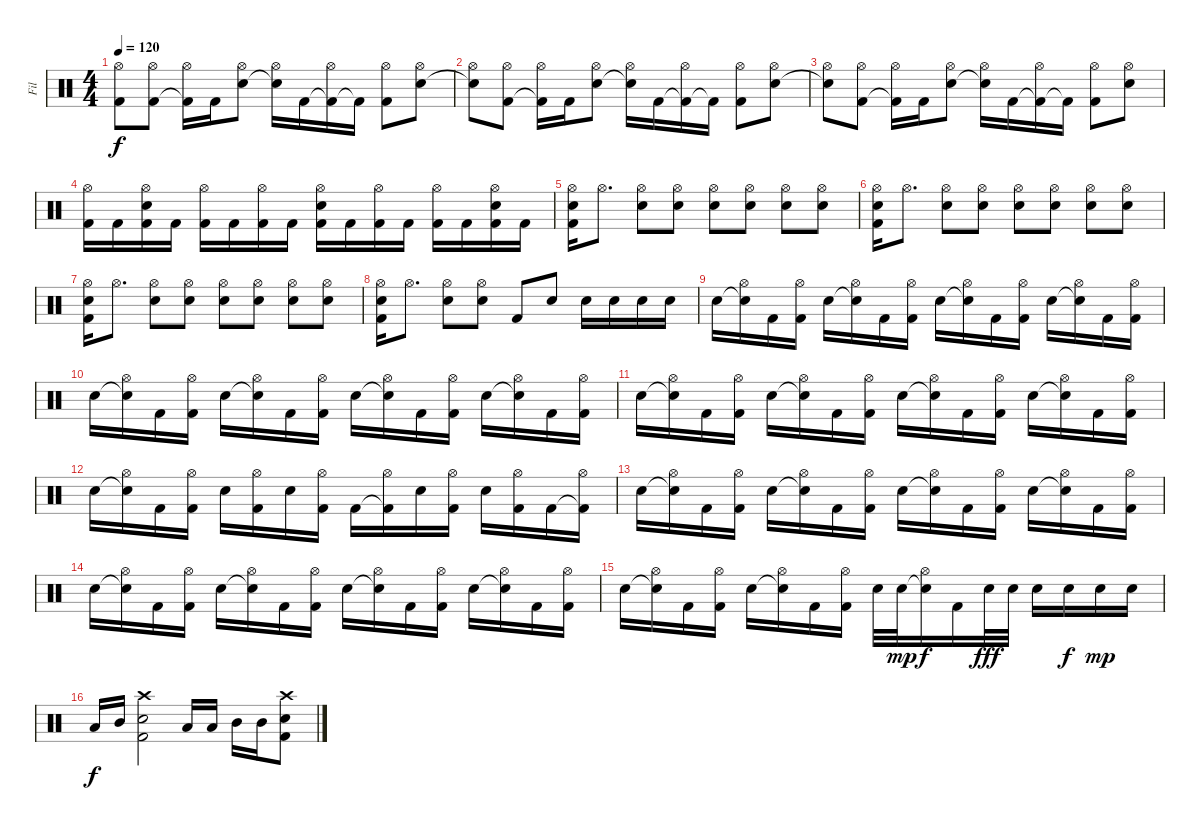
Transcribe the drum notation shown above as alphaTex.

\track ("Fil" "Fil") {instrument percussion}
\staff {score}
\articulation defaults
\ts (4 4)
\tempo 120
\clef neutral
\ks c
("Kick (hit) 2"{t} "Hi-Hat (open)").8{dy f} ("Kick (hit) 2" "Hi-Hat (open)").8 ("Kick (hit) 2"{t} "Hi-Hat (open)").16 "Kick (hit) 2".16 ("Snare (hit) 2" "Hi-Hat (open)").8 ("Snare (hit) 2"{t} "Hi-Hat (open)").16 "Kick (hit) 2".16 ("Kick (hit) 2"{t} "Hi-Hat (open)").16 "Kick (hit) 2"{t}.16 ("Kick (hit) 2" "Hi-Hat (open)").8 ("Snare (hit) 2" "Hi-Hat (open)").8 |
("Snare (hit) 2"{t} "Hi-Hat (open)").8 ("Kick (hit) 2" "Hi-Hat (open)").8 ("Kick (hit) 2"{t} "Hi-Hat (open)").16 "Kick (hit) 2".16 ("Snare (hit) 2" "Hi-Hat (open)").8 ("Snare (hit) 2"{t} "Hi-Hat (open)").16 "Kick (hit) 2".16 ("Kick (hit) 2"{t} "Hi-Hat (open)").16 "Kick (hit) 2"{t}.16 ("Kick (hit) 2" "Hi-Hat (open)").8 ("Snare (hit) 2" "Hi-Hat (open)").8 |
("Snare (hit) 2"{t} "Hi-Hat (open)").8 ("Kick (hit) 2" "Hi-Hat (open)").8 ("Kick (hit) 2"{t} "Hi-Hat (open)").16 "Kick (hit) 2".16 ("Snare (hit) 2" "Hi-Hat (open)").8 ("Snare (hit) 2"{t} "Hi-Hat (open)").16 "Kick (hit) 2".16 ("Kick (hit) 2"{t} "Hi-Hat (open)").16 "Kick (hit) 2"{t}.16 ("Kick (hit) 2" "Hi-Hat (open)").8 ("Snare (hit) 2" "Hi-Hat (open)").8 |
("Kick (hit) 2" "Hi-Hat (open)").16 "Kick (hit) 2".16 ("Kick (hit) 2" "Snare (hit) 2" "Hi-Hat (open)").16 "Kick (hit) 2".16 ("Kick (hit) 2" "Hi-Hat (open)").16 "Kick (hit) 2".16 ("Kick (hit) 2" "Hi-Hat (open)").16 "Kick (hit) 2".16 ("Kick (hit) 2" "Snare (hit) 2" "Hi-Hat (open)").16 "Kick (hit) 2".16 ("Kick (hit) 2" "Hi-Hat (open)").16 "Kick (hit) 2".16 ("Kick (hit) 2" "Hi-Hat (open)").16 "Kick (hit) 2".16 ("Kick (hit) 2" "Snare (hit) 2" "Hi-Hat (open)").16 "Kick (hit) 2".16 |
("Kick (hit) 2" "Snare (hit) 2" "Hi-Hat (open)").16 "Hi-Hat (open)".8{d} ("Snare (hit) 2" "Hi-Hat (open)").8 ("Snare (hit) 2" "Hi-Hat (open)").8 ("Snare (hit) 2" "Hi-Hat (open)").8 ("Snare (hit) 2" "Hi-Hat (open)").8 ("Snare (hit) 2" "Hi-Hat (open)").8 ("Snare (hit) 2" "Hi-Hat (open)").8 |
("Kick (hit) 2" "Snare (hit) 2" "Hi-Hat (open)").16 "Hi-Hat (open)".8{d} ("Snare (hit) 2" "Hi-Hat (open)").8 ("Snare (hit) 2" "Hi-Hat (open)").8 ("Snare (hit) 2" "Hi-Hat (open)").8 ("Snare (hit) 2" "Hi-Hat (open)").8 ("Snare (hit) 2" "Hi-Hat (open)").8 ("Snare (hit) 2" "Hi-Hat (open)").8 |
("Kick (hit) 2" "Snare (hit) 2" "Hi-Hat (open)").16 "Hi-Hat (open)".8{d} ("Snare (hit) 2" "Hi-Hat (open)").8 ("Snare (hit) 2" "Hi-Hat (open)").8 ("Snare (hit) 2" "Hi-Hat (open)").8 ("Snare (hit) 2" "Hi-Hat (open)").8 ("Snare (hit) 2" "Hi-Hat (open)").8 ("Snare (hit) 2" "Hi-Hat (open)").8 |
("Kick (hit) 2" "Snare (hit) 2" "Hi-Hat (open)").16 "Hi-Hat (open)".8{d} ("Snare (hit) 2" "Hi-Hat (open)").8 ("Snare (hit) 2" "Hi-Hat (open)").8 "Kick (hit) 2".8 "Snare (hit) 2".8 "Snare (hit) 2".16 "Snare (hit) 2".16 "Snare (hit) 2".16 "Snare (hit) 2".16 |
"Snare (hit) 2".16 ("Snare (hit) 2"{t} "Hi-Hat (open)").16 "Kick (hit) 2".16 ("Kick (hit) 2" "Hi-Hat (open)").16 "Snare (hit) 2".16 ("Snare (hit) 2"{t} "Hi-Hat (open)").16 "Kick (hit) 2".16 ("Kick (hit) 2" "Hi-Hat (open)").16 "Snare (hit) 2".16 ("Snare (hit) 2"{t} "Hi-Hat (open)").16 "Kick (hit) 2".16 ("Kick (hit) 2" "Hi-Hat (open)").16 "Snare (hit) 2".16 ("Snare (hit) 2"{t} "Hi-Hat (open)").16 "Kick (hit) 2".16 ("Kick (hit) 2" "Hi-Hat (open)").16 |
"Snare (hit) 2".16 ("Snare (hit) 2"{t} "Hi-Hat (open)").16 "Kick (hit) 2".16 ("Kick (hit) 2" "Hi-Hat (open)").16 "Snare (hit) 2".16 ("Snare (hit) 2"{t} "Hi-Hat (open)").16 "Kick (hit) 2".16 ("Kick (hit) 2" "Hi-Hat (open)").16 "Snare (hit) 2".16 ("Snare (hit) 2"{t} "Hi-Hat (open)").16 "Kick (hit) 2".16 ("Kick (hit) 2" "Hi-Hat (open)").16 "Snare (hit) 2".16 ("Snare (hit) 2"{t} "Hi-Hat (open)").16 "Kick (hit) 2".16 ("Kick (hit) 2" "Hi-Hat (open)").16 |
"Snare (hit) 2".16 ("Snare (hit) 2"{t} "Hi-Hat (open)").16 "Kick (hit) 2".16 ("Kick (hit) 2" "Hi-Hat (open)").16 "Snare (hit) 2".16 ("Snare (hit) 2"{t} "Hi-Hat (open)").16 "Kick (hit) 2".16 ("Kick (hit) 2" "Hi-Hat (open)").16 "Snare (hit) 2".16 ("Snare (hit) 2"{t} "Hi-Hat (open)").16 "Kick (hit) 2".16 ("Kick (hit) 2" "Hi-Hat (open)").16 "Snare (hit) 2".16 ("Snare (hit) 2"{t} "Hi-Hat (open)").16 "Kick (hit) 2".16 ("Kick (hit) 2" "Hi-Hat (open)").16 |
"Snare (hit) 2".16 ("Snare (hit) 2"{t} "Hi-Hat (open)").16 "Kick (hit) 2".16 ("Kick (hit) 2" "Hi-Hat (open)").16 "Snare (hit) 2".16 ("Kick (hit) 2" "Hi-Hat (open)").16 "Snare (hit) 2".16 ("Kick (hit) 2" "Hi-Hat (open)").16 "Kick (hit) 2".16 ("Kick (hit) 2"{t} "Hi-Hat (open)").16 "Snare (hit) 2".16 ("Kick (hit) 2" "Hi-Hat (open)").16 "Snare (hit) 2".16 ("Kick (hit) 2" "Hi-Hat (open)").16 "Kick (hit) 2".16 ("Kick (hit) 2"{t} "Hi-Hat (open)").16 |
"Snare (hit) 2".16 ("Snare (hit) 2"{t} "Hi-Hat (open)").16 "Kick (hit) 2".16 ("Kick (hit) 2" "Hi-Hat (open)").16 "Snare (hit) 2".16 ("Snare (hit) 2"{t} "Hi-Hat (open)").16 "Kick (hit) 2".16 ("Kick (hit) 2" "Hi-Hat (open)").16 "Snare (hit) 2".16 ("Snare (hit) 2"{t} "Hi-Hat (open)").16 "Kick (hit) 2".16 ("Kick (hit) 2" "Hi-Hat (open)").16 "Snare (hit) 2".16 ("Snare (hit) 2"{t} "Hi-Hat (open)").16 "Kick (hit) 2".16 ("Kick (hit) 2" "Hi-Hat (open)").16 |
"Snare (hit) 2".16 ("Snare (hit) 2"{t} "Hi-Hat (open)").16 "Kick (hit) 2".16 ("Kick (hit) 2" "Hi-Hat (open)").16 "Snare (hit) 2".16 ("Snare (hit) 2"{t} "Hi-Hat (open)").16 "Kick (hit) 2".16 ("Kick (hit) 2" "Hi-Hat (open)").16 "Snare (hit) 2".16 ("Snare (hit) 2"{t} "Hi-Hat (open)").16 "Kick (hit) 2".16 ("Kick (hit) 2" "Hi-Hat (open)").16 "Snare (hit) 2".16 ("Snare (hit) 2"{t} "Hi-Hat (open)").16 "Kick (hit) 2".16 ("Kick (hit) 2" "Hi-Hat (open)").16 |
"Snare (hit) 2".16 ("Snare (hit) 2"{t} "Hi-Hat (open)").16 "Kick (hit) 2".16 ("Kick (hit) 2" "Hi-Hat (open)").16 "Snare (hit) 2".16 ("Snare (hit) 2"{t} "Hi-Hat (open)").16 "Kick (hit) 2".16 ("Kick (hit) 2" "Hi-Hat (open)").16 "Snare (hit) 2".32 "Snare (hit) 2".32{dy mp} ("Snare (hit) 2"{t} "Hi-Hat (open)").16{dy f} "Kick (hit) 2".16 "Snare (hit) 2".32{dy fff} "Snare (hit) 2".32 "Snare (hit) 2".16 "Snare (hit) 2".16{dy f} "Snare (hit) 2".16{dy mp} "Snare (hit) 2".16 |
"Low Tom (hit)".16{dy f} "Mid Tom (hit)".16 ("Crash high (hit)" "Snare (hit) 2" "Kick (hit) 2").2 "Low Tom (hit)".16 "Low Tom (hit)".16 "Mid Tom (hit)".16 "Mid Tom (hit)".16 ("Crash high (hit)" "Snare (hit) 2" "Kick (hit) 2").8
